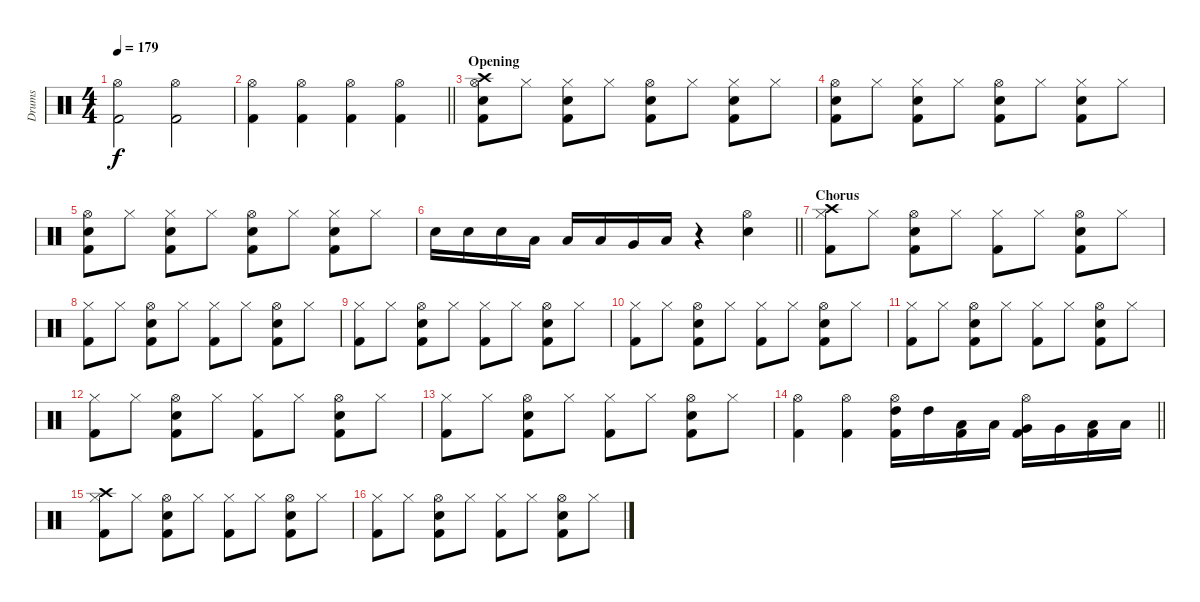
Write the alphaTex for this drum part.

\track ("Drums" "Drums") {instrument percussion}
\staff {score}
\articulation defaults
\ts (4 4)
\tempo 179
\clef neutral
\ks c
("Hi-Hat (open)" "Kick (hit) 2").2{dy f} ("Hi-Hat (open)" "Kick (hit) 2").2 |
\barLineRight lightlight
("Hi-Hat (open)" "Kick (hit) 2").4 ("Hi-Hat (open)" "Kick (hit) 2").4 ("Hi-Hat (open)" "Kick (hit) 2").4 ("Hi-Hat (open)" "Kick (hit) 2").4 |
\section ("" "Opening")
("Hi-Hat (open)" "Snare (hit) 2" "Crash high (hit)" "Kick (hit) 2").8 "Hi-Hat (closed)".8 ("Hi-Hat (closed)" "Snare (hit) 2" "Kick (hit) 2").8 "Hi-Hat (closed)".8 ("Hi-Hat (open)" "Snare (hit) 2" "Kick (hit) 2").8 "Hi-Hat (closed)".8 ("Hi-Hat (closed)" "Snare (hit) 2" "Kick (hit) 2").8 "Hi-Hat (closed)".8 |
("Hi-Hat (open)" "Snare (hit) 2" "Kick (hit) 2").8 "Hi-Hat (closed)".8 ("Hi-Hat (closed)" "Snare (hit) 2" "Kick (hit) 2").8 "Hi-Hat (closed)".8 ("Hi-Hat (open)" "Snare (hit) 2" "Kick (hit) 2").8 "Hi-Hat (closed)".8 ("Hi-Hat (closed)" "Snare (hit) 2" "Kick (hit) 2").8 "Hi-Hat (closed)".8 |
("Hi-Hat (open)" "Snare (hit) 2" "Kick (hit) 2").8 "Hi-Hat (closed)".8 ("Hi-Hat (closed)" "Snare (hit) 2" "Kick (hit) 2").8 "Hi-Hat (closed)".8 ("Hi-Hat (open)" "Snare (hit) 2" "Kick (hit) 2").8 "Hi-Hat (closed)".8 ("Hi-Hat (closed)" "Snare (hit) 2" "Kick (hit) 2").8 "Hi-Hat (closed)".8 |
\barLineRight lightlight "Snare (hit) 2".16 "Snare (hit) 2".16 "Snare (hit) 2".16 "Low Tom (hit)".16 "Low Tom (hit)".16 "Low Tom (hit)".16 "Very Low Tom (hit)".16 "Low Floor Tom (hit)".16
r.4 ("Hi-Hat (open)" "Snare (hit) 2").4 |
\section ("" "Chorus")
("Hi-Hat (closed)" "Crash high (hit)" "Kick (hit) 2").8 "Hi-Hat (closed)".8 ("Hi-Hat (open)" "Snare (hit) 2" "Kick (hit) 2").8 "Hi-Hat (closed)".8 ("Hi-Hat (closed)" "Kick (hit) 2").8 "Hi-Hat (closed)".8 ("Hi-Hat (open)" "Snare (hit) 2" "Kick (hit) 2").8 "Hi-Hat (closed)".8 |
("Hi-Hat (closed)" "Kick (hit) 2").8 "Hi-Hat (closed)".8 ("Hi-Hat (open)" "Snare (hit) 2" "Kick (hit) 2").8 "Hi-Hat (closed)".8 ("Hi-Hat (closed)" "Kick (hit) 2").8 "Hi-Hat (closed)".8 ("Hi-Hat (open)" "Snare (hit) 2" "Kick (hit) 2").8 "Hi-Hat (closed)".8 |
("Hi-Hat (closed)" "Kick (hit) 2").8 "Hi-Hat (closed)".8 ("Hi-Hat (open)" "Snare (hit) 2" "Kick (hit) 2").8 "Hi-Hat (closed)".8 ("Hi-Hat (closed)" "Kick (hit) 2").8 "Hi-Hat (closed)".8 ("Hi-Hat (open)" "Snare (hit) 2" "Kick (hit) 2").8 "Hi-Hat (closed)".8 |
("Hi-Hat (closed)" "Kick (hit) 2").8 "Hi-Hat (closed)".8 ("Hi-Hat (open)" "Snare (hit) 2" "Kick (hit) 2").8 "Hi-Hat (closed)".8 ("Hi-Hat (closed)" "Kick (hit) 2").8 "Hi-Hat (closed)".8 ("Hi-Hat (open)" "Snare (hit) 2" "Kick (hit) 2").8 "Hi-Hat (closed)".8 |
("Hi-Hat (closed)" "Kick (hit) 2").8 "Hi-Hat (closed)".8 ("Hi-Hat (open)" "Snare (hit) 2" "Kick (hit) 2").8 "Hi-Hat (closed)".8 ("Hi-Hat (closed)" "Kick (hit) 2").8 "Hi-Hat (closed)".8 ("Hi-Hat (open)" "Snare (hit) 2" "Kick (hit) 2").8 "Hi-Hat (closed)".8 |
("Hi-Hat (closed)" "Kick (hit) 2").8 "Hi-Hat (closed)".8 ("Hi-Hat (open)" "Snare (hit) 2" "Kick (hit) 2").8 "Hi-Hat (closed)".8 ("Hi-Hat (closed)" "Kick (hit) 2").8 "Hi-Hat (closed)".8 ("Hi-Hat (open)" "Snare (hit) 2" "Kick (hit) 2").8 "Hi-Hat (closed)".8 |
("Hi-Hat (closed)" "Kick (hit) 2").8 "Hi-Hat (closed)".8 ("Hi-Hat (open)" "Snare (hit) 2" "Kick (hit) 2").8 "Hi-Hat (closed)".8 ("Hi-Hat (closed)" "Kick (hit) 2").8 "Hi-Hat (closed)".8 ("Hi-Hat (open)" "Snare (hit) 2" "Kick (hit) 2").8 "Hi-Hat (closed)".8 |
\barLineRight lightlight
("Hi-Hat (open)" "Kick (hit) 2").4 ("Hi-Hat (open)" "Kick (hit) 2").4 ("Hi-Hat (open)" "High Tom (hit)" "Kick (hit) 2").16 "High Tom (hit)".16 ("Low Tom (hit)" "Kick (hit) 2").16 "Low Tom (hit)".16 ("Hi-Hat (open)" "Very Low Tom (hit)" "Kick (hit) 2").16 "Very Low Tom (hit)".16 ("Low Floor Tom (hit)" "Kick (hit) 2").16 "Low Floor Tom (hit)".16 |
("Hi-Hat (closed)" "Crash high (hit)" "Kick (hit) 2").8 "Hi-Hat (closed)".8 ("Hi-Hat (open)" "Snare (hit) 2" "Kick (hit) 2").8 "Hi-Hat (closed)".8 ("Hi-Hat (closed)" "Kick (hit) 2").8 "Hi-Hat (closed)".8 ("Hi-Hat (open)" "Snare (hit) 2" "Kick (hit) 2").8 "Hi-Hat (closed)".8 |
("Hi-Hat (closed)" "Kick (hit) 2").8 "Hi-Hat (closed)".8 ("Hi-Hat (open)" "Snare (hit) 2" "Kick (hit) 2").8 "Hi-Hat (closed)".8 ("Hi-Hat (closed)" "Kick (hit) 2").8 "Hi-Hat (closed)".8 ("Hi-Hat (open)" "Snare (hit) 2" "Kick (hit) 2").8 "Hi-Hat (closed)".8
